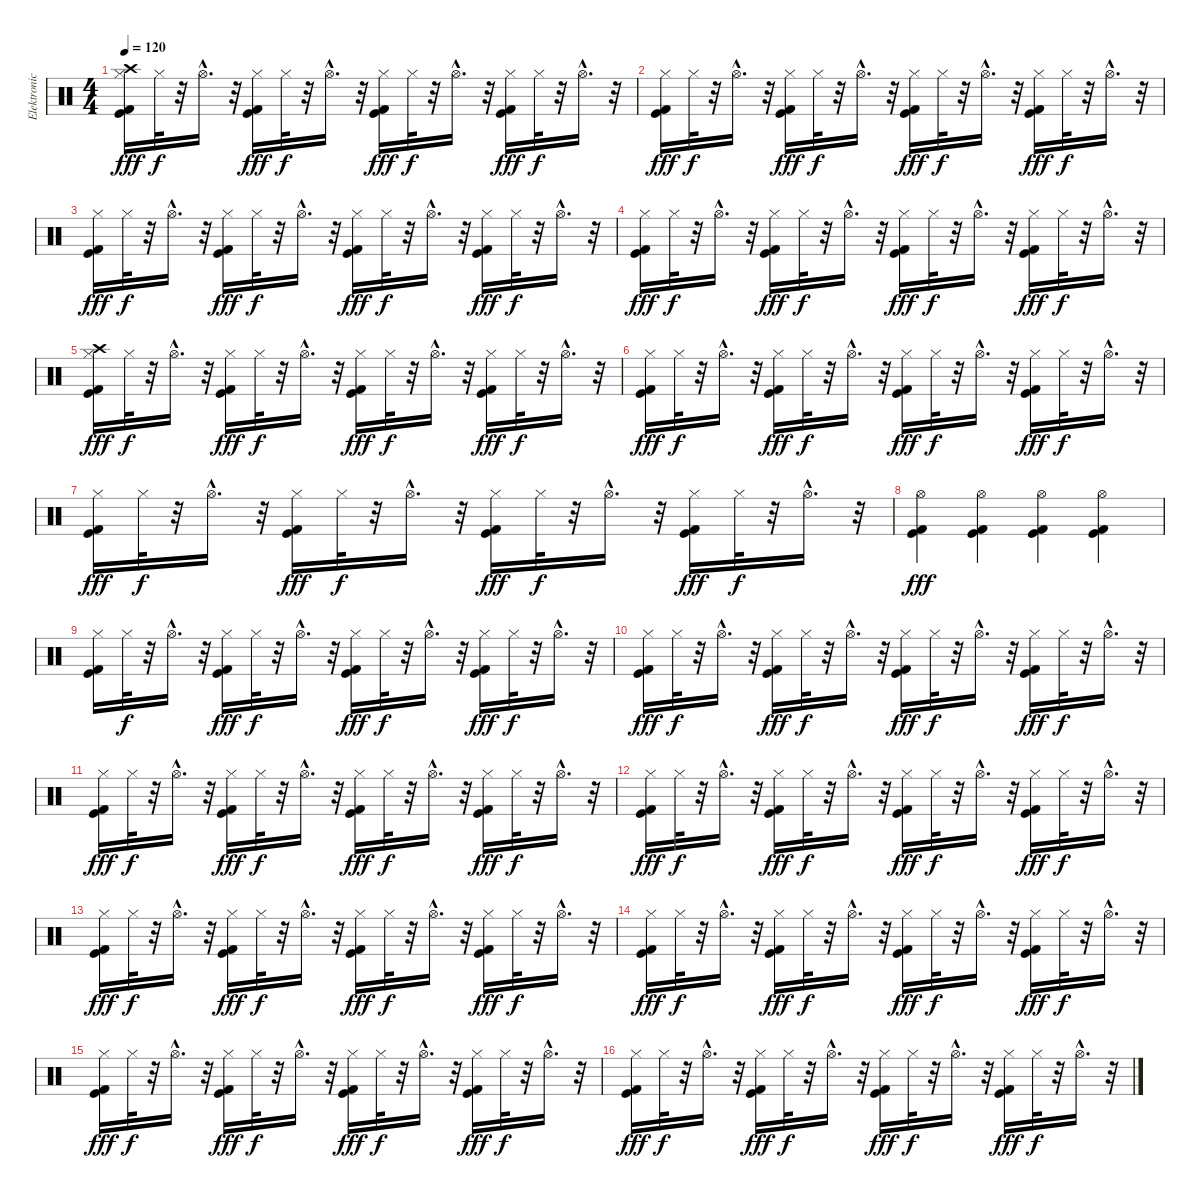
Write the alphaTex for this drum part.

\track ("Elektronické bicí 2" "Elektronic") {instrument percussion}
\staff {score}
\articulation defaults
\ts (4 4)
\tempo 120
\clef neutral
\ks c
("Crash high (hit)" "Hi-Hat (closed)" "Kick (hit) 2" "Kick (hit)").16{dy fff} "Hi-Hat (closed)".32{dy f} r.32 "Hi-Hat (open)"{hac}.16{d} r.32 ("Hi-Hat (closed)" "Kick (hit) 2" "Kick (hit)").16{dy fff} "Hi-Hat (closed)".32{dy f} r.32 "Hi-Hat (open)"{hac}.16{d} r.32 ("Hi-Hat (closed)" "Kick (hit) 2" "Kick (hit)").16{dy fff} "Hi-Hat (closed)".32{dy f} r.32 "Hi-Hat (open)"{hac}.16{d} r.32 ("Hi-Hat (closed)" "Kick (hit) 2" "Kick (hit)").16{dy fff} "Hi-Hat (closed)".32{dy f} r.32 "Hi-Hat (open)"{hac}.16{d} r.32 |
("Hi-Hat (closed)" "Kick (hit) 2" "Kick (hit)").16{dy fff} "Hi-Hat (closed)".32{dy f} r.32 "Hi-Hat (open)"{hac}.16{d} r.32 ("Hi-Hat (closed)" "Kick (hit) 2" "Kick (hit)").16{dy fff} "Hi-Hat (closed)".32{dy f} r.32 "Hi-Hat (open)"{hac}.16{d} r.32 ("Hi-Hat (closed)" "Kick (hit) 2" "Kick (hit)").16{dy fff} "Hi-Hat (closed)".32{dy f} r.32 "Hi-Hat (open)"{hac}.16{d} r.32 ("Hi-Hat (closed)" "Kick (hit) 2" "Kick (hit)").16{dy fff} "Hi-Hat (closed)".32{dy f} r.32 "Hi-Hat (open)"{hac}.16{d} r.32 |
("Hi-Hat (closed)" "Kick (hit) 2" "Kick (hit)").16{dy fff} "Hi-Hat (closed)".32{dy f} r.32 "Hi-Hat (open)"{hac}.16{d} r.32 ("Hi-Hat (closed)" "Kick (hit) 2" "Kick (hit)").16{dy fff} "Hi-Hat (closed)".32{dy f} r.32 "Hi-Hat (open)"{hac}.16{d} r.32 ("Hi-Hat (closed)" "Kick (hit) 2" "Kick (hit)").16{dy fff} "Hi-Hat (closed)".32{dy f} r.32 "Hi-Hat (open)"{hac}.16{d} r.32 ("Hi-Hat (closed)" "Kick (hit) 2" "Kick (hit)").16{dy fff} "Hi-Hat (closed)".32{dy f} r.32 "Hi-Hat (open)"{hac}.16{d} r.32 |
("Hi-Hat (closed)" "Kick (hit) 2" "Kick (hit)").16{dy fff} "Hi-Hat (closed)".32{dy f} r.32 "Hi-Hat (open)"{hac}.16{d} r.32 ("Hi-Hat (closed)" "Kick (hit) 2" "Kick (hit)").16{dy fff} "Hi-Hat (closed)".32{dy f} r.32 "Hi-Hat (open)"{hac}.16{d} r.32 ("Hi-Hat (closed)" "Kick (hit) 2" "Kick (hit)").16{dy fff} "Hi-Hat (closed)".32{dy f} r.32 "Hi-Hat (open)"{hac}.16{d} r.32 ("Hi-Hat (closed)" "Kick (hit) 2" "Kick (hit)").16{dy fff} "Hi-Hat (closed)".32{dy f} r.32 "Hi-Hat (open)"{hac}.16{d} r.32 |
("Crash high (hit)" "Hi-Hat (closed)" "Kick (hit) 2" "Kick (hit)").16{dy fff} "Hi-Hat (closed)".32{dy f} r.32 "Hi-Hat (open)"{hac}.16{d} r.32 ("Hi-Hat (closed)" "Kick (hit) 2" "Kick (hit)").16{dy fff} "Hi-Hat (closed)".32{dy f} r.32 "Hi-Hat (open)"{hac}.16{d} r.32 ("Hi-Hat (closed)" "Kick (hit) 2" "Kick (hit)").16{dy fff} "Hi-Hat (closed)".32{dy f} r.32 "Hi-Hat (open)"{hac}.16{d} r.32 ("Hi-Hat (closed)" "Kick (hit) 2" "Kick (hit)").16{dy fff} "Hi-Hat (closed)".32{dy f} r.32 "Hi-Hat (open)"{hac}.16{d} r.32 |
("Hi-Hat (closed)" "Kick (hit) 2" "Kick (hit)").16{dy fff} "Hi-Hat (closed)".32{dy f} r.32 "Hi-Hat (open)"{hac}.16{d} r.32 ("Hi-Hat (closed)" "Kick (hit) 2" "Kick (hit)").16{dy fff} "Hi-Hat (closed)".32{dy f} r.32 "Hi-Hat (open)"{hac}.16{d} r.32 ("Hi-Hat (closed)" "Kick (hit) 2" "Kick (hit)").16{dy fff} "Hi-Hat (closed)".32{dy f} r.32 "Hi-Hat (open)"{hac}.16{d} r.32 ("Hi-Hat (closed)" "Kick (hit) 2" "Kick (hit)").16{dy fff} "Hi-Hat (closed)".32{dy f} r.32 "Hi-Hat (open)"{hac}.16{d} r.32 |
("Hi-Hat (closed)" "Kick (hit) 2" "Kick (hit)").16{dy fff} "Hi-Hat (closed)".32{dy f} r.32 "Hi-Hat (open)"{hac}.16{d} r.32 ("Hi-Hat (closed)" "Kick (hit) 2" "Kick (hit)").16{dy fff} "Hi-Hat (closed)".32{dy f} r.32 "Hi-Hat (open)"{hac}.16{d} r.32 ("Hi-Hat (closed)" "Kick (hit) 2" "Kick (hit)").16{dy fff} "Hi-Hat (closed)".32{dy f} r.32 "Hi-Hat (open)"{hac}.16{d} r.32 ("Hi-Hat (closed)" "Kick (hit) 2" "Kick (hit)").16{dy fff} "Hi-Hat (closed)".32{dy f} r.32 "Hi-Hat (open)"{hac}.16{d} r.32 |
("Hi-Hat (open)" "Kick (hit) 2" "Kick (hit)").4{dy fff} ("Hi-Hat (open)" "Kick (hit) 2" "Kick (hit)").4 ("Hi-Hat (open)" "Kick (hit) 2" "Kick (hit)").4 ("Hi-Hat (open)" "Kick (hit) 2" "Kick (hit)").4 |
("Hi-Hat (closed)" "Kick (hit) 2" "Kick (hit)").16 "Hi-Hat (closed)".32{dy f} r.32 "Hi-Hat (open)"{hac}.16{d} r.32 ("Hi-Hat (closed)" "Kick (hit) 2" "Kick (hit)").16{dy fff} "Hi-Hat (closed)".32{dy f} r.32 "Hi-Hat (open)"{hac}.16{d} r.32 ("Hi-Hat (closed)" "Kick (hit) 2" "Kick (hit)").16{dy fff} "Hi-Hat (closed)".32{dy f} r.32 "Hi-Hat (open)"{hac}.16{d} r.32 ("Hi-Hat (closed)" "Kick (hit) 2" "Kick (hit)").16{dy fff} "Hi-Hat (closed)".32{dy f} r.32 "Hi-Hat (open)"{hac}.16{d} r.32 |
("Hi-Hat (closed)" "Kick (hit) 2" "Kick (hit)").16{dy fff} "Hi-Hat (closed)".32{dy f} r.32 "Hi-Hat (open)"{hac}.16{d} r.32 ("Hi-Hat (closed)" "Kick (hit) 2" "Kick (hit)").16{dy fff} "Hi-Hat (closed)".32{dy f} r.32 "Hi-Hat (open)"{hac}.16{d} r.32 ("Hi-Hat (closed)" "Kick (hit) 2" "Kick (hit)").16{dy fff} "Hi-Hat (closed)".32{dy f} r.32 "Hi-Hat (open)"{hac}.16{d} r.32 ("Hi-Hat (closed)" "Kick (hit) 2" "Kick (hit)").16{dy fff} "Hi-Hat (closed)".32{dy f} r.32 "Hi-Hat (open)"{hac}.16{d} r.32 |
("Hi-Hat (closed)" "Kick (hit) 2" "Kick (hit)").16{dy fff} "Hi-Hat (closed)".32{dy f} r.32 "Hi-Hat (open)"{hac}.16{d} r.32 ("Hi-Hat (closed)" "Kick (hit) 2" "Kick (hit)").16{dy fff} "Hi-Hat (closed)".32{dy f} r.32 "Hi-Hat (open)"{hac}.16{d} r.32 ("Hi-Hat (closed)" "Kick (hit) 2" "Kick (hit)").16{dy fff} "Hi-Hat (closed)".32{dy f} r.32 "Hi-Hat (open)"{hac}.16{d} r.32 ("Hi-Hat (closed)" "Kick (hit) 2" "Kick (hit)").16{dy fff} "Hi-Hat (closed)".32{dy f} r.32 "Hi-Hat (open)"{hac}.16{d} r.32 |
("Hi-Hat (closed)" "Kick (hit) 2" "Kick (hit)").16{dy fff} "Hi-Hat (closed)".32{dy f} r.32 "Hi-Hat (open)"{hac}.16{d} r.32 ("Hi-Hat (closed)" "Kick (hit) 2" "Kick (hit)").16{dy fff} "Hi-Hat (closed)".32{dy f} r.32 "Hi-Hat (open)"{hac}.16{d} r.32 ("Hi-Hat (closed)" "Kick (hit) 2" "Kick (hit)").16{dy fff} "Hi-Hat (closed)".32{dy f} r.32 "Hi-Hat (open)"{hac}.16{d} r.32 ("Hi-Hat (closed)" "Kick (hit) 2" "Kick (hit)").16{dy fff} "Hi-Hat (closed)".32{dy f} r.32 "Hi-Hat (open)"{hac}.16{d} r.32 |
("Hi-Hat (closed)" "Kick (hit) 2" "Kick (hit)").16{dy fff} "Hi-Hat (closed)".32{dy f} r.32 "Hi-Hat (open)"{hac}.16{d} r.32 ("Hi-Hat (closed)" "Kick (hit) 2" "Kick (hit)").16{dy fff} "Hi-Hat (closed)".32{dy f} r.32 "Hi-Hat (open)"{hac}.16{d} r.32 ("Hi-Hat (closed)" "Kick (hit) 2" "Kick (hit)").16{dy fff} "Hi-Hat (closed)".32{dy f} r.32 "Hi-Hat (open)"{hac}.16{d} r.32 ("Hi-Hat (closed)" "Kick (hit) 2" "Kick (hit)").16{dy fff} "Hi-Hat (closed)".32{dy f} r.32 "Hi-Hat (open)"{hac}.16{d} r.32 |
("Hi-Hat (closed)" "Kick (hit) 2" "Kick (hit)").16{dy fff} "Hi-Hat (closed)".32{dy f} r.32 "Hi-Hat (open)"{hac}.16{d} r.32 ("Hi-Hat (closed)" "Kick (hit) 2" "Kick (hit)").16{dy fff} "Hi-Hat (closed)".32{dy f} r.32 "Hi-Hat (open)"{hac}.16{d} r.32 ("Hi-Hat (closed)" "Kick (hit) 2" "Kick (hit)").16{dy fff} "Hi-Hat (closed)".32{dy f} r.32 "Hi-Hat (open)"{hac}.16{d} r.32 ("Hi-Hat (closed)" "Kick (hit) 2" "Kick (hit)").16{dy fff} "Hi-Hat (closed)".32{dy f} r.32 "Hi-Hat (open)"{hac}.16{d} r.32 |
("Hi-Hat (closed)" "Kick (hit) 2" "Kick (hit)").16{dy fff} "Hi-Hat (closed)".32{dy f} r.32 "Hi-Hat (open)"{hac}.16{d} r.32 ("Hi-Hat (closed)" "Kick (hit) 2" "Kick (hit)").16{dy fff} "Hi-Hat (closed)".32{dy f} r.32 "Hi-Hat (open)"{hac}.16{d} r.32 ("Hi-Hat (closed)" "Kick (hit) 2" "Kick (hit)").16{dy fff} "Hi-Hat (closed)".32{dy f} r.32 "Hi-Hat (open)"{hac}.16{d} r.32 ("Hi-Hat (closed)" "Kick (hit) 2" "Kick (hit)").16{dy fff} "Hi-Hat (closed)".32{dy f} r.32 "Hi-Hat (open)"{hac}.16{d} r.32 |
("Hi-Hat (closed)" "Kick (hit) 2" "Kick (hit)").16{dy fff} "Hi-Hat (closed)".32{dy f} r.32 "Hi-Hat (open)"{hac}.16{d} r.32 ("Hi-Hat (closed)" "Kick (hit) 2" "Kick (hit)").16{dy fff} "Hi-Hat (closed)".32{dy f} r.32 "Hi-Hat (open)"{hac}.16{d} r.32 ("Hi-Hat (closed)" "Kick (hit) 2" "Kick (hit)").16{dy fff} "Hi-Hat (closed)".32{dy f} r.32 "Hi-Hat (open)"{hac}.16{d} r.32 ("Hi-Hat (closed)" "Kick (hit) 2" "Kick (hit)").16{dy fff} "Hi-Hat (closed)".32{dy f} r.32 "Hi-Hat (open)"{hac}.16{d} r.32
